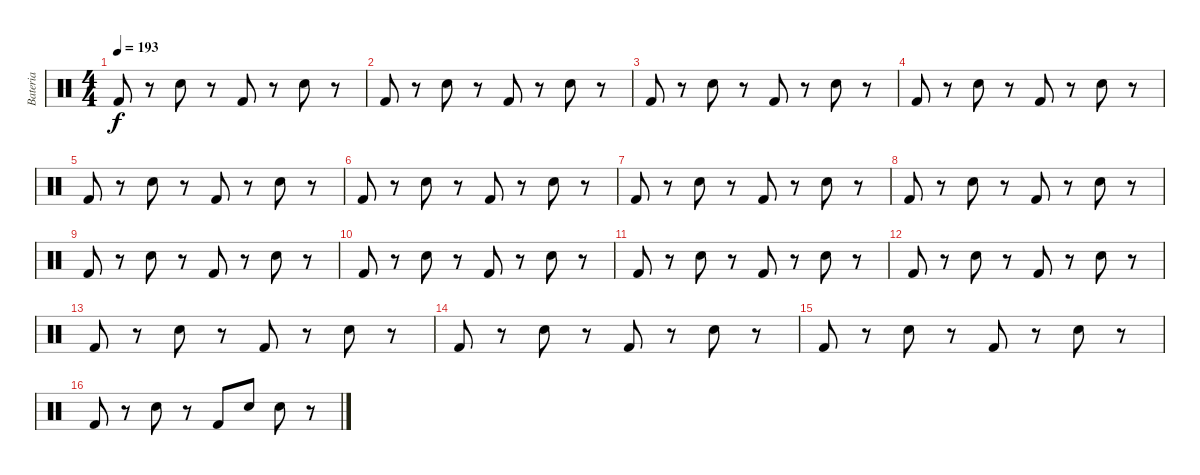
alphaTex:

\track ("Bateria" "Bateria") {instrument percussion}
\staff {score}
\articulation defaults
\ts (4 4)
\tempo 193
\clef neutral
\ks c "Kick (hit) 2".8{dy f}
r.8 "Electric Snare (hit)".8 r.8 "Kick (hit) 2".8 r.8 "Electric Snare (hit)".8 r.8 |
"Kick (hit) 2".8 r.8 "Electric Snare (hit)".8 r.8 "Kick (hit) 2".8 r.8 "Electric Snare (hit)".8 r.8 |
"Kick (hit) 2".8 r.8 "Electric Snare (hit)".8 r.8 "Kick (hit) 2".8 r.8 "Electric Snare (hit)".8 r.8 |
"Kick (hit) 2".8 r.8 "Electric Snare (hit)".8 r.8 "Kick (hit) 2".8 r.8 "Electric Snare (hit)".8 r.8 |
"Kick (hit) 2".8 r.8 "Electric Snare (hit)".8 r.8 "Kick (hit) 2".8 r.8 "Electric Snare (hit)".8 r.8 |
"Kick (hit) 2".8 r.8 "Electric Snare (hit)".8 r.8 "Kick (hit) 2".8 r.8 "Electric Snare (hit)".8 r.8 |
"Kick (hit) 2".8 r.8 "Electric Snare (hit)".8 r.8 "Kick (hit) 2".8 r.8 "Electric Snare (hit)".8 r.8 |
"Kick (hit) 2".8 r.8 "Electric Snare (hit)".8 r.8 "Kick (hit) 2".8 r.8 "Electric Snare (hit)".8 r.8 |
"Kick (hit) 2".8 r.8 "Electric Snare (hit)".8 r.8 "Kick (hit) 2".8 r.8 "Electric Snare (hit)".8 r.8 |
"Kick (hit) 2".8 r.8 "Electric Snare (hit)".8 r.8 "Kick (hit) 2".8 r.8 "Electric Snare (hit)".8 r.8 |
"Kick (hit) 2".8 r.8 "Electric Snare (hit)".8 r.8 "Kick (hit) 2".8 r.8 "Electric Snare (hit)".8 r.8 |
"Kick (hit) 2".8 r.8 "Electric Snare (hit)".8 r.8 "Kick (hit) 2".8 r.8 "Electric Snare (hit)".8 r.8 |
"Kick (hit) 2".8 r.8 "Electric Snare (hit)".8 r.8 "Kick (hit) 2".8 r.8 "Electric Snare (hit)".8 r.8 |
"Kick (hit) 2".8 r.8 "Electric Snare (hit)".8 r.8 "Kick (hit) 2".8 r.8 "Electric Snare (hit)".8 r.8 |
"Kick (hit) 2".8 r.8 "Electric Snare (hit)".8 r.8 "Kick (hit) 2".8 r.8 "Electric Snare (hit)".8 r.8 |
"Kick (hit) 2".8 r.8 "Electric Snare (hit)".8 r.8 "Kick (hit) 2".8 "Electric Snare (hit)".8 "Electric Snare (hit)".8 r.8
